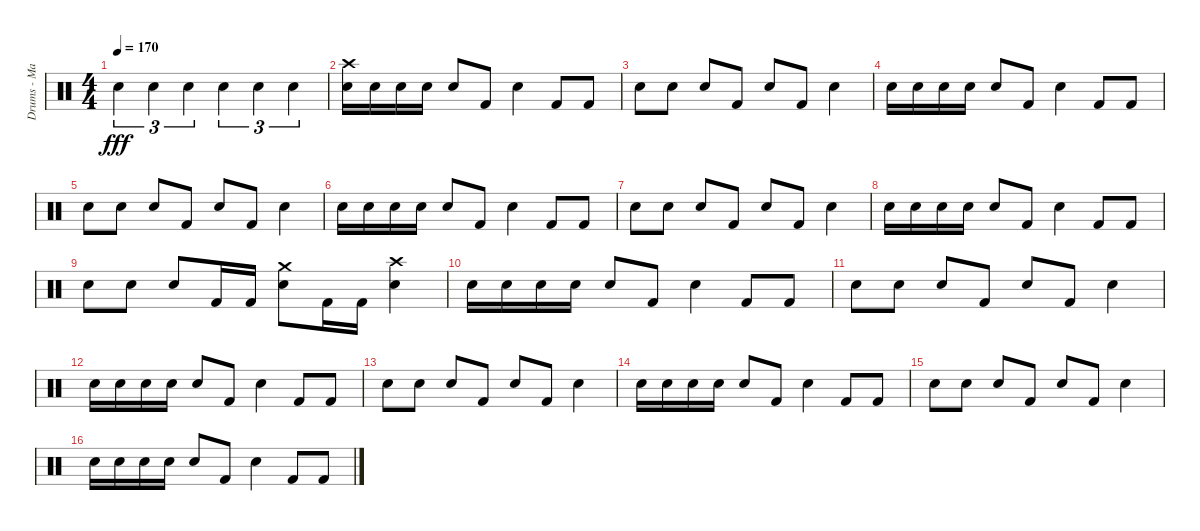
\track ("Drums - Matt Traynor" "Drums - Ma") {instrument percussion}
\staff {score}
\articulation defaults
\ts (4 4)
\tempo 170
\clef neutral
\ks c "Snare (hit) 2".4{tu (3 2) dy fff} "Snare (hit) 2".4{tu (3 2)} "Snare (hit) 2".4{tu (3 2)} "Snare (hit) 2".4{tu (3 2)} "Snare (hit) 2".4{tu (3 2)} "Snare (hit) 2".4{tu (3 2)}
|
("Crash high (hit)" "Snare (hit) 2").16 "Snare (hit) 2".16 "Snare (hit) 2".16 "Snare (hit) 2".16 "Snare (hit) 2".8 "Kick (hit) 2".8 "Snare (hit) 2".4 "Kick (hit) 2".8 "Kick (hit) 2".8 |
"Snare (hit) 2".8 "Snare (hit) 2".8 "Snare (hit) 2".8 "Kick (hit) 2".8 "Snare (hit) 2".8 "Kick (hit) 2".8 "Snare (hit) 2".4 |
"Snare (hit) 2".16 "Snare (hit) 2".16 "Snare (hit) 2".16 "Snare (hit) 2".16 "Snare (hit) 2".8 "Kick (hit) 2".8 "Snare (hit) 2".4 "Kick (hit) 2".8 "Kick (hit) 2".8 |
"Snare (hit) 2".8 "Snare (hit) 2".8 "Snare (hit) 2".8 "Kick (hit) 2".8 "Snare (hit) 2".8 "Kick (hit) 2".8 "Snare (hit) 2".4 |
"Snare (hit) 2".16 "Snare (hit) 2".16 "Snare (hit) 2".16 "Snare (hit) 2".16 "Snare (hit) 2".8 "Kick (hit) 2".8 "Snare (hit) 2".4 "Kick (hit) 2".8 "Kick (hit) 2".8 |
"Snare (hit) 2".8 "Snare (hit) 2".8 "Snare (hit) 2".8 "Kick (hit) 2".8 "Snare (hit) 2".8 "Kick (hit) 2".8 "Snare (hit) 2".4 |
"Snare (hit) 2".16 "Snare (hit) 2".16 "Snare (hit) 2".16 "Snare (hit) 2".16 "Snare (hit) 2".8 "Kick (hit) 2".8 "Snare (hit) 2".4 "Kick (hit) 2".8 "Kick (hit) 2".8 |
"Snare (hit) 2".8 "Snare (hit) 2".8 "Snare (hit) 2".8 "Kick (hit) 2".16 "Kick (hit) 2".16 ("Crash medium (hit)" "Snare (hit) 2").8 "Kick (hit) 2".16 "Kick (hit) 2".16 ("Crash high (hit)" "Snare (hit) 2").4 |
"Snare (hit) 2".16 "Snare (hit) 2".16 "Snare (hit) 2".16 "Snare (hit) 2".16 "Snare (hit) 2".8 "Kick (hit) 2".8 "Snare (hit) 2".4 "Kick (hit) 2".8 "Kick (hit) 2".8 |
"Snare (hit) 2".8 "Snare (hit) 2".8 "Snare (hit) 2".8 "Kick (hit) 2".8 "Snare (hit) 2".8 "Kick (hit) 2".8 "Snare (hit) 2".4 |
"Snare (hit) 2".16 "Snare (hit) 2".16 "Snare (hit) 2".16 "Snare (hit) 2".16 "Snare (hit) 2".8 "Kick (hit) 2".8 "Snare (hit) 2".4 "Kick (hit) 2".8 "Kick (hit) 2".8 |
"Snare (hit) 2".8 "Snare (hit) 2".8 "Snare (hit) 2".8 "Kick (hit) 2".8 "Snare (hit) 2".8 "Kick (hit) 2".8 "Snare (hit) 2".4 |
"Snare (hit) 2".16 "Snare (hit) 2".16 "Snare (hit) 2".16 "Snare (hit) 2".16 "Snare (hit) 2".8 "Kick (hit) 2".8 "Snare (hit) 2".4 "Kick (hit) 2".8 "Kick (hit) 2".8 |
"Snare (hit) 2".8 "Snare (hit) 2".8 "Snare (hit) 2".8 "Kick (hit) 2".8 "Snare (hit) 2".8 "Kick (hit) 2".8 "Snare (hit) 2".4 |
"Snare (hit) 2".16 "Snare (hit) 2".16 "Snare (hit) 2".16 "Snare (hit) 2".16 "Snare (hit) 2".8 "Kick (hit) 2".8 "Snare (hit) 2".4 "Kick (hit) 2".8 "Kick (hit) 2".8
